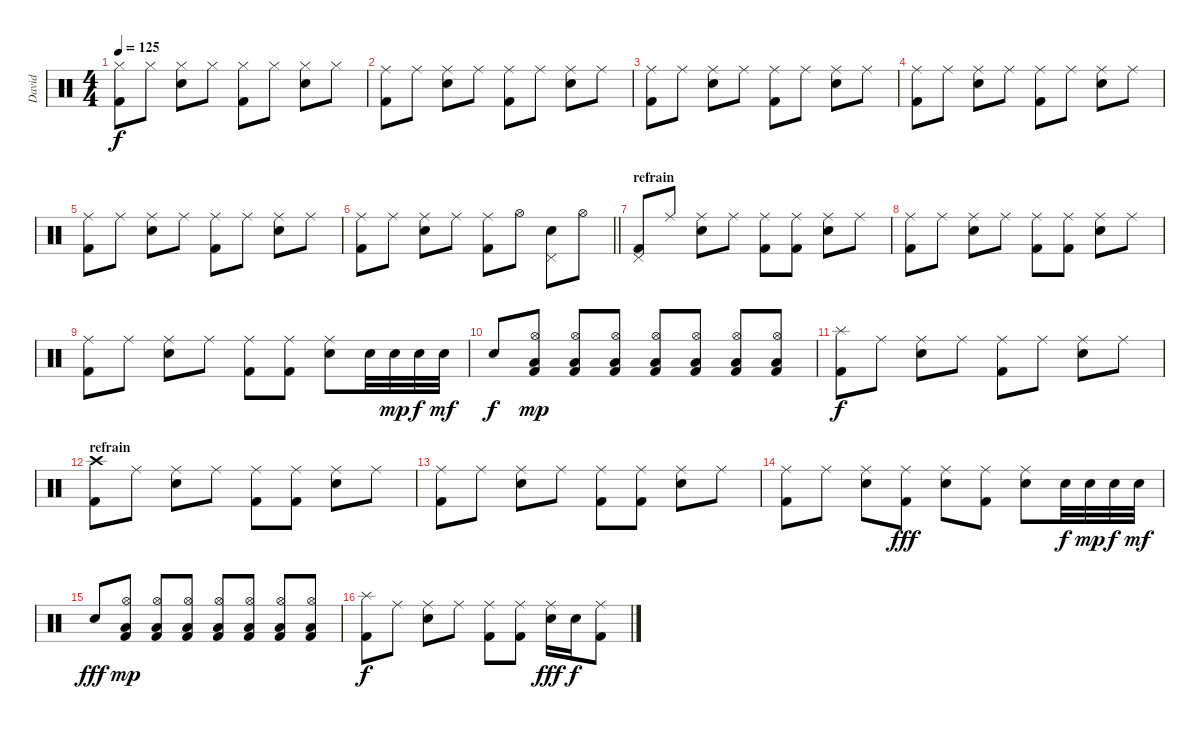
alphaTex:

\track ("David" "David") {instrument percussion}
\staff {score}
\articulation defaults
\ts (4 4)
\tempo 125
\clef neutral
\ks c
("Hi-Hat (closed)" "Kick (hit) 2").8{dy f} "Hi-Hat (closed)".8 ("Hi-Hat (closed)" "Electric Snare (hit)").8 "Hi-Hat (closed)".8 ("Hi-Hat (closed)" "Kick (hit) 2").8 "Hi-Hat (closed)".8 ("Hi-Hat (closed)" "Electric Snare (hit)").8 "Hi-Hat (closed)".8 |
("Ride (middle)" "Kick (hit) 2").8 "Ride (middle)".8 ("Ride (middle)" "Electric Snare (hit)").8 "Ride (middle)".8 ("Ride (middle)" "Kick (hit) 2").8 "Ride (middle)".8 ("Ride (middle)" "Electric Snare (hit)").8 "Ride (middle)".8 |
("Ride (middle)" "Kick (hit) 2").8 "Ride (middle)".8 ("Ride (middle)" "Electric Snare (hit)").8 "Ride (middle)".8 ("Ride (middle)" "Kick (hit) 2").8 "Ride (middle)".8 ("Ride (middle)" "Electric Snare (hit)").8 "Ride (middle)".8 |
("Ride (middle)" "Kick (hit) 2").8 "Ride (middle)".8 ("Ride (middle)" "Electric Snare (hit)").8 "Ride (middle)".8 ("Ride (middle)" "Kick (hit) 2").8 "Ride (middle)".8 ("Ride (middle)" "Electric Snare (hit)").8 "Ride (middle)".8 |
("Ride (middle)" "Kick (hit) 2").8 "Ride (middle)".8 ("Ride (middle)" "Electric Snare (hit)").8 "Ride (middle)".8 ("Ride (middle)" "Kick (hit) 2").8 "Ride (middle)".8 ("Ride (middle)" "Electric Snare (hit)").8 "Ride (middle)".8 |
\barLineRight lightlight
("Ride (middle)" "Kick (hit) 2").8 "Ride (middle)".8 ("Ride (middle)" "Electric Snare (hit)").8 "Ride (middle)".8 ("Ride (middle)" "Kick (hit) 2").8 "Hi-Hat (open)".8 ("Pedal Hi-Hat (hit)" "Electric Snare (hit)").8 "Hi-Hat (open)".8 |
\section ("" "refrain")
("Pedal Hi-Hat (hit)" "Kick (hit) 2").8 "Ride (middle)".8 ("Ride (middle)" "Electric Snare (hit)").8 "Ride (middle)".8 ("Ride (middle)" "Kick (hit) 2").8 ("Ride (middle)" "Kick (hit) 2").8 ("Ride (middle)" "Electric Snare (hit)").8 "Ride (middle)".8 |
("Ride (middle)" "Kick (hit) 2").8 "Ride (middle)".8 ("Ride (middle)" "Electric Snare (hit)").8 "Ride (middle)".8 ("Ride (middle)" "Kick (hit) 2").8 ("Ride (middle)" "Kick (hit) 2").8 ("Ride (middle)" "Electric Snare (hit)").8 "Ride (middle)".8 |
("Ride (middle)" "Kick (hit) 2").8 "Ride (middle)".8 ("Ride (middle)" "Electric Snare (hit)").8 "Ride (middle)".8 ("Ride (middle)" "Kick (hit) 2").8 ("Ride (middle)" "Kick (hit) 2").8 ("Ride (middle)" "Electric Snare (hit)").8 "Electric Snare (hit)".32 "Electric Snare (hit)".32{dy mp} "Electric Snare (hit)".32{dy f} "Electric Snare (hit)".32{dy mf} |
"Electric Snare (hit)".8{dy f} ("Hi-Hat (open)" "Low Floor Tom (hit)" "Kick (hit) 2").8{dy mp} ("Hi-Hat (open)" "Low Floor Tom (hit)" "Kick (hit) 2").8 ("Hi-Hat (open)" "Low Floor Tom (hit)" "Kick (hit) 2").8 ("Hi-Hat (open)" "Low Floor Tom (hit)" "Kick (hit) 2").8 ("Hi-Hat (open)" "Low Floor Tom (hit)" "Kick (hit) 2").8 ("Hi-Hat (open)" "Low Floor Tom (hit)" "Kick (hit) 2").8 ("Hi-Hat (open)" "Low Floor Tom (hit)" "Kick (hit) 2").8 |
("Splash (hit)" "Kick (hit) 2").8{dy f} "Ride (middle)".8 ("Ride (middle)" "Electric Snare (hit)").8 "Ride (middle)".8 ("Ride (middle)" "Kick (hit) 2").8 "Ride (middle)".8 ("Ride (middle)" "Electric Snare (hit)").8 "Ride (middle)".8 |
\section ("" "refrain")
("Crash high (hit)" "Kick (hit) 2").8 "Ride (middle)".8 ("Ride (middle)" "Electric Snare (hit)").8 "Ride (middle)".8 ("Ride (middle)" "Kick (hit) 2").8 ("Ride (middle)" "Kick (hit) 2").8 ("Ride (middle)" "Electric Snare (hit)").8 "Ride (middle)".8 |
("Ride (middle)" "Kick (hit) 2").8 "Ride (middle)".8 ("Ride (middle)" "Electric Snare (hit)").8 "Ride (middle)".8 ("Ride (middle)" "Kick (hit) 2").8 ("Ride (middle)" "Kick (hit) 2").8 ("Ride (middle)" "Electric Snare (hit)").8 "Ride (middle)".8 |
("Ride (middle)" "Kick (hit) 2").8 "Ride (middle)".8 ("Ride (middle)" "Electric Snare (hit)").8 ("Ride (middle)" "Kick (hit) 2").8{dy fff} ("Ride (middle)" "Electric Snare (hit)").8 ("Ride (middle)" "Kick (hit) 2").8 ("Ride (middle)" "Electric Snare (hit)").8 "Electric Snare (hit)".32{dy f} "Electric Snare (hit)".32{dy mp} "Electric Snare (hit)".32{dy f} "Electric Snare (hit)".32{dy mf} |
"Electric Snare (hit)".8{dy fff} ("Hi-Hat (open)" "Low Floor Tom (hit)" "Kick (hit) 2").8{dy mp} ("Hi-Hat (open)" "Low Floor Tom (hit)" "Kick (hit) 2").8 ("Hi-Hat (open)" "Low Floor Tom (hit)" "Kick (hit) 2").8 ("Hi-Hat (open)" "Low Floor Tom (hit)" "Kick (hit) 2").8 ("Hi-Hat (open)" "Low Floor Tom (hit)" "Kick (hit) 2").8 ("Hi-Hat (open)" "Low Floor Tom (hit)" "Kick (hit) 2").8 ("Hi-Hat (open)" "Low Floor Tom (hit)" "Kick (hit) 2").8 |
("Splash (hit)" "Kick (hit) 2").8{dy f} "Ride (middle)".8 ("Ride (middle)" "Electric Snare (hit)").8 "Ride (middle)".8 ("Ride (middle)" "Kick (hit) 2").8 ("Ride (middle)" "Kick (hit) 2").8 ("Ride (middle)" "Electric Snare (hit)").16{dy fff} "Electric Snare (hit)".16{dy f} ("Ride (middle)" "Kick (hit) 2").8
